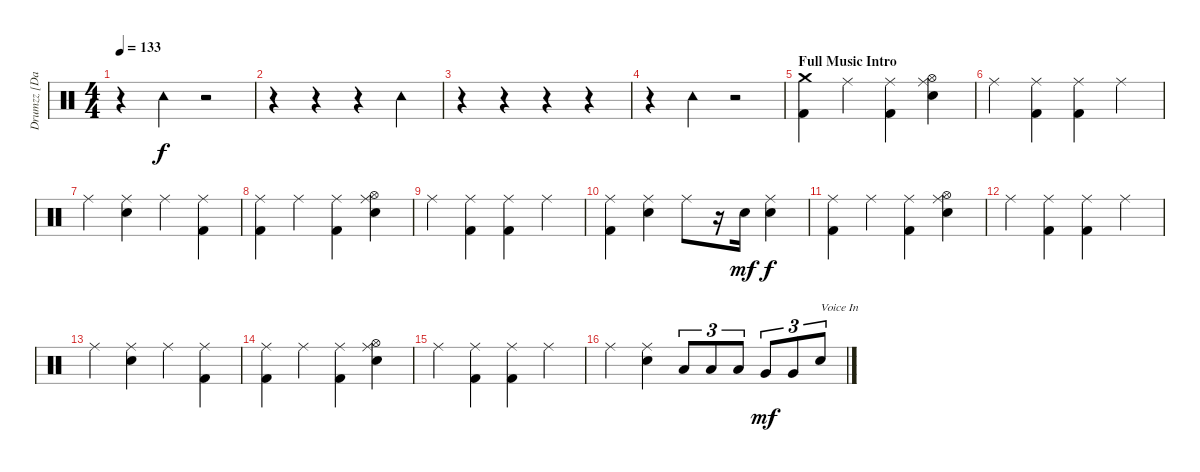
\track ("Drumzz [Dave Grohl]" "Drumzz [Da") {instrument percussion}
\staff {score}
\articulation defaults
\ts (4 4)
\tempo 133
\clef neutral
\ks c
r.4{dy f} "Tambourine (hit)".4 r.2 |
r.4 r.4 r.4 "Tambourine (hit)".4 |
r.4 r.4 r.4 r.4 |
r.4 "Tambourine (hit)".4 r.2 |
\section ("" "Full Music Intro")
("Crash medium (hit)" "Kick (hit) 2").4{txt "" volume 13 balance 8} "Ride (middle)".4 ("Ride (middle)" "Kick (hit) 2").4 ("Ride (middle)" "Hi-Hat (open)" "Snare (hit) 2").4 |
"Ride (middle)".4 ("Ride (middle)" "Kick (hit) 2").4 ("Ride (middle)" "Kick (hit) 2").4 "Ride (middle)".4 |
"Ride (middle)".4 ("Ride (middle)" "Snare (hit) 2").4 "Ride (middle)".4 ("Ride (middle)" "Kick (hit) 2").4 |
("Ride (middle)" "Kick (hit) 2").4 "Ride (middle)".4 ("Ride (middle)" "Kick (hit) 2").4 ("Ride (middle)" "Hi-Hat (open)" "Snare (hit) 2").4 |
"Ride (middle)".4 ("Ride (middle)" "Kick (hit) 2").4 ("Ride (middle)" "Kick (hit) 2").4 "Ride (middle)".4 |
("Ride (middle)" "Kick (hit) 2").4 ("Ride (middle)" "Snare (hit) 2").4 "Ride (middle)".8 r.16 "Snare (hit) 2".16{dy mf} ("Ride (middle)" "Snare (hit) 2").4{dy f} |
("Ride (middle)" "Kick (hit) 2").4{txt ""} "Ride (middle)".4 ("Ride (middle)" "Kick (hit) 2").4 ("Ride (middle)" "Hi-Hat (open)" "Snare (hit) 2").4 |
"Ride (middle)".4 ("Ride (middle)" "Kick (hit) 2").4 ("Ride (middle)" "Kick (hit) 2").4 "Ride (middle)".4 |
"Ride (middle)".4 ("Ride (middle)" "Snare (hit) 2").4 "Ride (middle)".4 ("Ride (middle)" "Kick (hit) 2").4 |
("Ride (middle)" "Kick (hit) 2").4 "Ride (middle)".4 ("Ride (middle)" "Kick (hit) 2").4 ("Ride (middle)" "Hi-Hat (open)" "Snare (hit) 2").4 |
"Ride (middle)".4 ("Ride (middle)" "Kick (hit) 2").4 ("Ride (middle)" "Kick (hit) 2").4 "Ride (middle)".4 |
"Ride (middle)".4 ("Ride (middle)" "Snare (hit) 2").4 "Low Tom (hit)".8{tu (3 2)} "Low Tom (hit)".8{tu (3 2)} "Low Tom (hit)".8{tu (3 2)} "Very Low Tom (hit)".8{tu (3 2) dy mf} "Very Low Tom (hit)".8{tu (3 2)} "Snare (hit) 2".8{tu (3 2) txt "Voice In"}
